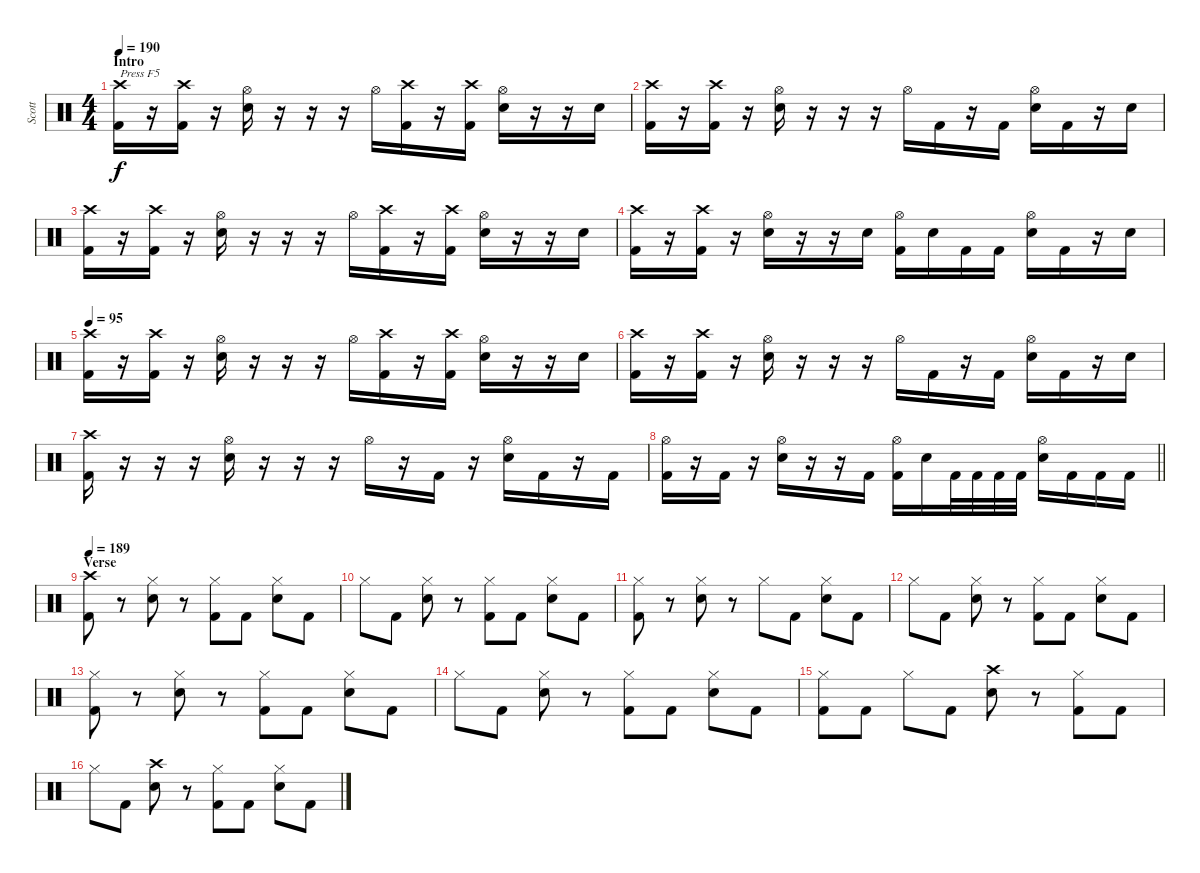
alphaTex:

\track ("Scott" "Scott") {instrument percussion}
\staff {score}
\articulation defaults
\ts (4 4)
\section ("" "Intro")
\tempo 190
\tempo 95
\tempo 190
\clef neutral
\ks c
("Crash high (hit)" "Kick (hit) 2").16{txt "Press F5" dy f} r.16 ("Crash high (hit)" "Kick (hit) 2").16 r.16 ("Hi-Hat (open)" "Electric Snare (hit)").16 r.16 r.16 r.16 "Hi-Hat (open)".16 ("Crash high (hit)" "Kick (hit) 2").16 r.16 ("Crash high (hit)" "Kick (hit) 2").16 ("Hi-Hat (open)" "Electric Snare (hit)").16 r.16 r.16 "Electric Snare (hit)".16 |
("Crash high (hit)" "Kick (hit) 2").16 r.16 ("Crash high (hit)" "Kick (hit) 2").16 r.16 ("Hi-Hat (open)" "Electric Snare (hit)").16 r.16 r.16 r.16 "Hi-Hat (open)".16 "Kick (hit) 2".16 r.16 "Kick (hit) 2".16 ("Hi-Hat (open)" "Electric Snare (hit)").16 "Kick (hit) 2".16 r.16 "Electric Snare (hit)".16 |
("Crash high (hit)" "Kick (hit) 2").16 r.16 ("Crash high (hit)" "Kick (hit) 2").16 r.16 ("Hi-Hat (open)" "Electric Snare (hit)").16 r.16 r.16 r.16 "Hi-Hat (open)".16 ("Crash high (hit)" "Kick (hit) 2").16 r.16 ("Crash high (hit)" "Kick (hit) 2").16 ("Hi-Hat (open)" "Electric Snare (hit)").16 r.16 r.16 "Electric Snare (hit)".16 |
("Crash high (hit)" "Kick (hit) 2").16 r.16 ("Crash high (hit)" "Kick (hit) 2").16 r.16 ("Hi-Hat (open)" "Electric Snare (hit)").16 r.16 r.16 "Electric Snare (hit)".16 ("Hi-Hat (open)" "Kick (hit) 2").16 "Electric Snare (hit)".16 "Kick (hit) 2".16 "Kick (hit) 2".16 ("Hi-Hat (open)" "Electric Snare (hit)").16 "Kick (hit) 2".16 r.16 "Electric Snare (hit)".16 |
\tempo 95
("Crash high (hit)" "Kick (hit) 2").16 r.16 ("Crash high (hit)" "Kick (hit) 2").16 r.16 ("Hi-Hat (open)" "Electric Snare (hit)").16 r.16 r.16 r.16 "Hi-Hat (open)".16 ("Crash high (hit)" "Kick (hit) 2").16 r.16 ("Crash high (hit)" "Kick (hit) 2").16 ("Hi-Hat (open)" "Electric Snare (hit)").16 r.16 r.16 "Electric Snare (hit)".16 |
("Crash high (hit)" "Kick (hit) 2").16 r.16 ("Crash high (hit)" "Kick (hit) 2").16 r.16 ("Hi-Hat (open)" "Electric Snare (hit)").16 r.16 r.16 r.16 "Hi-Hat (open)".16 "Kick (hit) 2".16 r.16 "Kick (hit) 2".16 ("Hi-Hat (open)" "Electric Snare (hit)").16 "Kick (hit) 2".16 r.16 "Electric Snare (hit)".16 |
("Crash high (hit)" "Kick (hit) 2").16 r.16 r.16 r.16 ("Hi-Hat (open)" "Electric Snare (hit)").16 r.16 r.16 r.16 "Hi-Hat (open)".16 r.16 "Kick (hit) 2".16 r.16 ("Hi-Hat (open)" "Electric Snare (hit)").16 "Kick (hit) 2".16 r.16 "Kick (hit) 2".16 |
\barLineRight lightlight
("Hi-Hat (open)" "Kick (hit) 2").16 r.16 "Kick (hit) 2".16 r.16 ("Hi-Hat (open)" "Electric Snare (hit)").16 r.16 r.16 "Kick (hit) 2".16 ("Hi-Hat (open)" "Kick (hit) 2").16 "Electric Snare (hit)".16 "Kick (hit) 2".32 "Kick (hit) 2".32 "Kick (hit) 2".32 "Kick (hit) 2".32 ("Hi-Hat (open)" "Electric Snare (hit)").16 "Kick (hit) 2".16 "Kick (hit) 2".16 "Kick (hit) 2".16 |
\section ("" "Verse")
\tempo 189
("Crash high (hit)" "Kick (hit) 2").8 r.8 ("Hi-Hat (closed)" "Electric Snare (hit)").8 r.8 ("Hi-Hat (closed)" "Kick (hit) 2").8 "Kick (hit) 2".8 ("Hi-Hat (closed)" "Electric Snare (hit)").8 "Kick (hit) 2".8 |
"Hi-Hat (closed)".8 "Kick (hit) 2".8 ("Hi-Hat (closed)" "Electric Snare (hit)").8 r.8 ("Hi-Hat (closed)" "Kick (hit) 2").8 "Kick (hit) 2".8 ("Hi-Hat (closed)" "Electric Snare (hit)").8 "Kick (hit) 2".8 |
("Hi-Hat (closed)" "Kick (hit) 2").8 r.8 ("Hi-Hat (closed)" "Electric Snare (hit)").8 r.8 "Hi-Hat (closed)".8 "Kick (hit) 2".8 ("Hi-Hat (closed)" "Electric Snare (hit)").8 "Kick (hit) 2".8 |
"Hi-Hat (closed)".8 "Kick (hit) 2".8 ("Hi-Hat (closed)" "Electric Snare (hit)").8 r.8 ("Hi-Hat (closed)" "Kick (hit) 2").8 "Kick (hit) 2".8 ("Hi-Hat (closed)" "Electric Snare (hit)").8 "Kick (hit) 2".8 |
("Hi-Hat (closed)" "Kick (hit) 2").8 r.8 ("Hi-Hat (closed)" "Electric Snare (hit)").8 r.8 ("Hi-Hat (closed)" "Kick (hit) 2").8 "Kick (hit) 2".8 ("Hi-Hat (closed)" "Electric Snare (hit)").8 "Kick (hit) 2".8 |
"Hi-Hat (closed)".8 "Kick (hit) 2".8 ("Hi-Hat (closed)" "Electric Snare (hit)").8 r.8 ("Hi-Hat (closed)" "Kick (hit) 2").8 "Kick (hit) 2".8 ("Hi-Hat (closed)" "Electric Snare (hit)").8 "Kick (hit) 2".8 |
("Hi-Hat (closed)" "Kick (hit) 2").8 "Kick (hit) 2".8 "Hi-Hat (closed)".8 "Kick (hit) 2".8 ("Crash high (hit)" "Electric Snare (hit)").8 r.8 ("Hi-Hat (closed)" "Kick (hit) 2").8 "Kick (hit) 2".8 |
"Hi-Hat (closed)".8 "Kick (hit) 2".8 ("Crash high (hit)" "Electric Snare (hit)").8 r.8 ("Hi-Hat (closed)" "Kick (hit) 2").8 "Kick (hit) 2".8 ("Hi-Hat (closed)" "Electric Snare (hit)").8 "Kick (hit) 2".8
